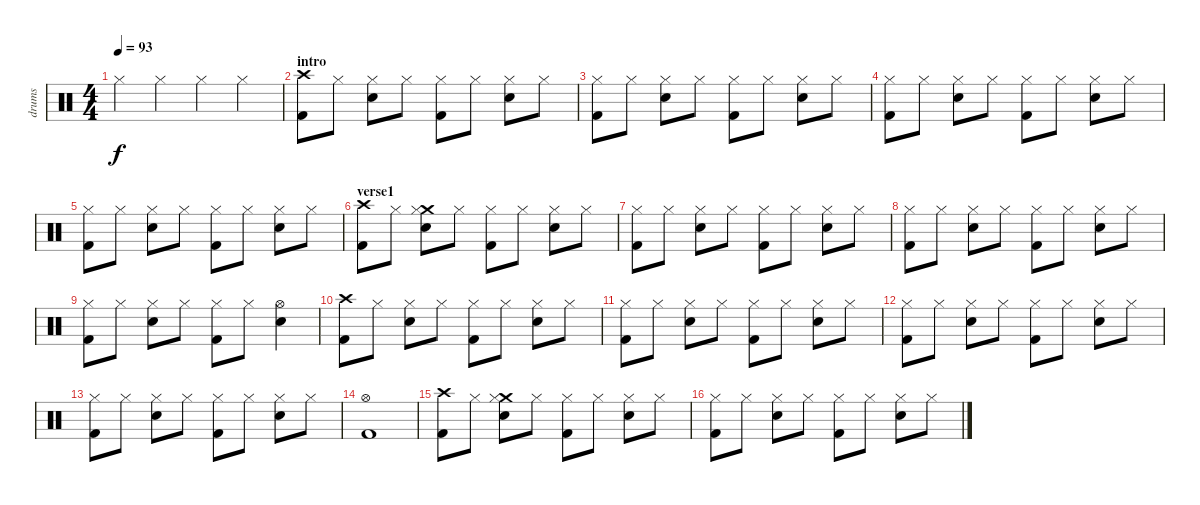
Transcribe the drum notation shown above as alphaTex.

\track ("drums" "drums") {instrument percussion}
\staff {score}
\articulation defaults
\ts (4 4)
\tempo 93
\clef neutral
\ks c "Hi-Hat (closed)".4{dy f} "Hi-Hat (closed)".4 "Hi-Hat (closed)".4 "Hi-Hat (closed)".4
|
\section ("" "intro")
("Crash high (hit)" "Kick (hit) 2").8 "Hi-Hat (closed)".8 ("Hi-Hat (closed)" "Electric Snare (hit)").8 "Hi-Hat (closed)".8 ("Hi-Hat (closed)" "Kick (hit) 2").8 "Hi-Hat (closed)".8 ("Hi-Hat (closed)" "Electric Snare (hit)").8 "Hi-Hat (closed)".8 |
("Hi-Hat (closed)" "Kick (hit) 2").8 "Hi-Hat (closed)".8 ("Hi-Hat (closed)" "Electric Snare (hit)").8 "Hi-Hat (closed)".8 ("Hi-Hat (closed)" "Kick (hit) 2").8 "Hi-Hat (closed)".8 ("Hi-Hat (closed)" "Electric Snare (hit)").8 "Hi-Hat (closed)".8 |
("Hi-Hat (closed)" "Kick (hit) 2").8 "Hi-Hat (closed)".8 ("Hi-Hat (closed)" "Electric Snare (hit)").8 "Hi-Hat (closed)".8 ("Hi-Hat (closed)" "Kick (hit) 2").8 "Hi-Hat (closed)".8 ("Hi-Hat (closed)" "Electric Snare (hit)").8 "Hi-Hat (closed)".8 |
("Hi-Hat (closed)" "Kick (hit) 2").8 "Hi-Hat (closed)".8 ("Hi-Hat (closed)" "Electric Snare (hit)").8 "Hi-Hat (closed)".8 ("Hi-Hat (closed)" "Kick (hit) 2").8 "Hi-Hat (closed)".8 ("Hi-Hat (closed)" "Electric Snare (hit)").8 "Hi-Hat (closed)".8 |
\section ("" "verse1")
("Crash high (hit)" "Kick (hit) 2").8 "Hi-Hat (closed)".8 ("Crash medium (hit)" "Hi-Hat (closed)" "Electric Snare (hit)").8 "Hi-Hat (closed)".8 ("Hi-Hat (closed)" "Kick (hit) 2").8 "Hi-Hat (closed)".8 ("Hi-Hat (closed)" "Electric Snare (hit)").8 "Hi-Hat (closed)".8 |
("Hi-Hat (closed)" "Kick (hit) 2").8 "Hi-Hat (closed)".8 ("Hi-Hat (closed)" "Electric Snare (hit)").8 "Hi-Hat (closed)".8 ("Hi-Hat (closed)" "Kick (hit) 2").8 "Hi-Hat (closed)".8 ("Hi-Hat (closed)" "Electric Snare (hit)").8 "Hi-Hat (closed)".8 |
("Hi-Hat (closed)" "Kick (hit) 2").8 "Hi-Hat (closed)".8 ("Hi-Hat (closed)" "Electric Snare (hit)").8 "Hi-Hat (closed)".8 ("Hi-Hat (closed)" "Kick (hit) 2").8 "Hi-Hat (closed)".8 ("Hi-Hat (closed)" "Electric Snare (hit)").8 "Hi-Hat (closed)".8 |
("Hi-Hat (closed)" "Kick (hit) 2").8 "Hi-Hat (closed)".8 ("Hi-Hat (closed)" "Electric Snare (hit)").8 "Hi-Hat (closed)".8 ("Hi-Hat (closed)" "Kick (hit) 2").8 "Hi-Hat (closed)".8 ("Hi-Hat (open)" "Electric Snare (hit)").4 |
("Crash high (hit)" "Kick (hit) 2").8 "Hi-Hat (closed)".8 ("Hi-Hat (closed)" "Electric Snare (hit)").8 "Hi-Hat (closed)".8 ("Hi-Hat (closed)" "Kick (hit) 2").8 "Hi-Hat (closed)".8 ("Hi-Hat (closed)" "Electric Snare (hit)").8 "Hi-Hat (closed)".8 |
("Hi-Hat (closed)" "Kick (hit) 2").8 "Hi-Hat (closed)".8 ("Hi-Hat (closed)" "Electric Snare (hit)").8 "Hi-Hat (closed)".8 ("Hi-Hat (closed)" "Kick (hit) 2").8 "Hi-Hat (closed)".8 ("Hi-Hat (closed)" "Electric Snare (hit)").8 "Hi-Hat (closed)".8 |
("Hi-Hat (closed)" "Kick (hit) 2").8 "Hi-Hat (closed)".8 ("Hi-Hat (closed)" "Electric Snare (hit)").8 "Hi-Hat (closed)".8 ("Hi-Hat (closed)" "Kick (hit) 2").8 "Hi-Hat (closed)".8 ("Hi-Hat (closed)" "Electric Snare (hit)").8 "Hi-Hat (closed)".8 |
("Hi-Hat (closed)" "Kick (hit) 2").8 "Hi-Hat (closed)".8 ("Hi-Hat (closed)" "Electric Snare (hit)").8 "Hi-Hat (closed)".8 ("Hi-Hat (closed)" "Kick (hit) 2").8 "Hi-Hat (closed)".8 ("Hi-Hat (closed)" "Electric Snare (hit)").8 "Hi-Hat (closed)".8 |
("Hi-Hat (open)" "Kick (hit) 2").1 |
("Crash high (hit)" "Kick (hit) 2").8 "Hi-Hat (closed)".8 ("Crash medium (hit)" "Hi-Hat (closed)" "Electric Snare (hit)").8 "Hi-Hat (closed)".8 ("Hi-Hat (closed)" "Kick (hit) 2").8 "Hi-Hat (closed)".8 ("Hi-Hat (closed)" "Electric Snare (hit)").8 "Hi-Hat (closed)".8 |
("Hi-Hat (closed)" "Kick (hit) 2").8 "Hi-Hat (closed)".8 ("Hi-Hat (closed)" "Electric Snare (hit)").8 "Hi-Hat (closed)".8 ("Hi-Hat (closed)" "Kick (hit) 2").8 "Hi-Hat (closed)".8 ("Hi-Hat (closed)" "Electric Snare (hit)").8 "Hi-Hat (closed)".8
